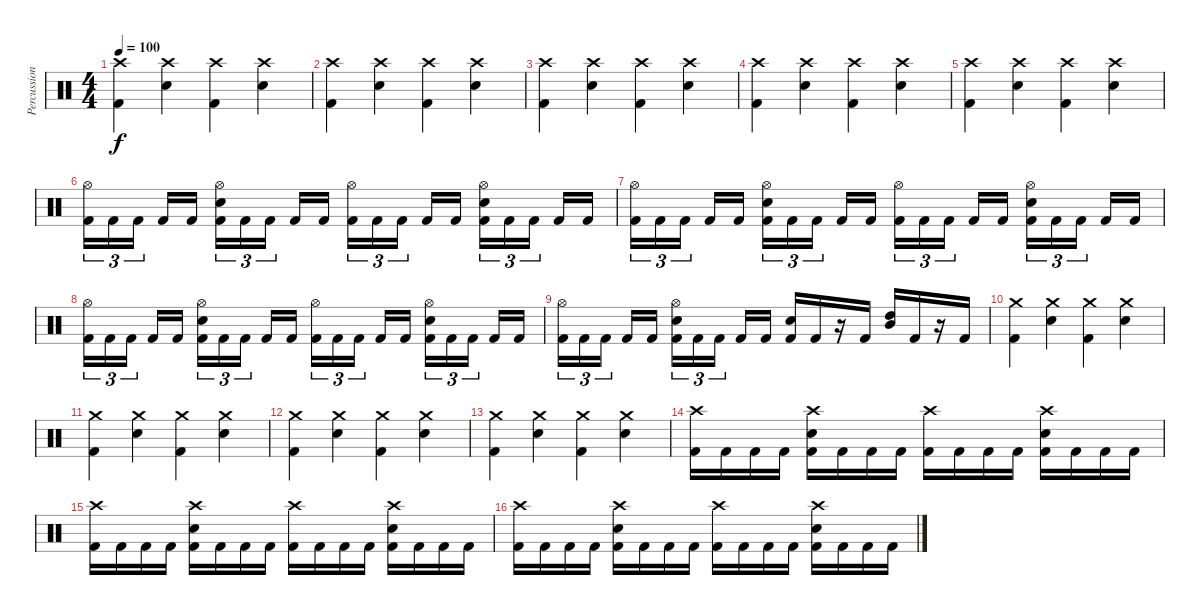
\track ("Percussion" "Percussion") {instrument percussion}
\staff {score}
\articulation defaults
\ts (4 4)
\tempo 100
\clef neutral
\ks c
("Crash high (hit)" "Kick (hit) 2").4{dy f} ("Crash high (hit)" "Electric Snare (hit)").4 ("Crash high (hit)" "Kick (hit) 2").4 ("Crash high (hit)" "Electric Snare (hit)").4 |
("Crash high (hit)" "Kick (hit) 2").4 ("Crash high (hit)" "Electric Snare (hit)").4 ("Crash high (hit)" "Kick (hit) 2").4 ("Crash high (hit)" "Electric Snare (hit)").4 |
("Crash high (hit)" "Kick (hit) 2").4 ("Crash high (hit)" "Electric Snare (hit)").4 ("Crash high (hit)" "Kick (hit) 2").4 ("Crash high (hit)" "Electric Snare (hit)").4 |
("Crash high (hit)" "Kick (hit) 2").4 ("Crash high (hit)" "Electric Snare (hit)").4 ("Crash high (hit)" "Kick (hit) 2").4 ("Crash high (hit)" "Electric Snare (hit)").4 |
("Crash high (hit)" "Kick (hit) 2").4 ("Crash high (hit)" "Electric Snare (hit)").4 ("Crash high (hit)" "Kick (hit) 2").4 ("Crash high (hit)" "Electric Snare (hit)").4 |
("Kick (hit) 2" "Hi-Hat (open)").16{tu (3 2)} "Kick (hit) 2".16{tu (3 2)} "Kick (hit) 2".16{tu (3 2) beam splitsecondary} "Kick (hit) 2".16 "Kick (hit) 2".16 ("Kick (hit) 2" "Hi-Hat (open)" "Electric Snare (hit)").16{tu (3 2)} "Kick (hit) 2".16{tu (3 2)} "Kick (hit) 2".16{tu (3 2) beam splitsecondary} "Kick (hit) 2".16 "Kick (hit) 2".16 ("Kick (hit) 2" "Hi-Hat (open)").16{tu (3 2)} "Kick (hit) 2".16{tu (3 2)} "Kick (hit) 2".16{tu (3 2) beam splitsecondary} "Kick (hit) 2".16 "Kick (hit) 2".16 ("Kick (hit) 2" "Hi-Hat (open)" "Electric Snare (hit)").16{tu (3 2)} "Kick (hit) 2".16{tu (3 2)} "Kick (hit) 2".16{tu (3 2) beam splitsecondary} "Kick (hit) 2".16 "Kick (hit) 2".16 |
("Kick (hit) 2" "Hi-Hat (open)").16{tu (3 2)} "Kick (hit) 2".16{tu (3 2)} "Kick (hit) 2".16{tu (3 2) beam splitsecondary} "Kick (hit) 2".16 "Kick (hit) 2".16 ("Kick (hit) 2" "Hi-Hat (open)" "Electric Snare (hit)").16{tu (3 2)} "Kick (hit) 2".16{tu (3 2)} "Kick (hit) 2".16{tu (3 2) beam splitsecondary} "Kick (hit) 2".16 "Kick (hit) 2".16 ("Kick (hit) 2" "Hi-Hat (open)").16{tu (3 2)} "Kick (hit) 2".16{tu (3 2)} "Kick (hit) 2".16{tu (3 2) beam splitsecondary} "Kick (hit) 2".16 "Kick (hit) 2".16 ("Kick (hit) 2" "Hi-Hat (open)" "Electric Snare (hit)").16{tu (3 2)} "Kick (hit) 2".16{tu (3 2)} "Kick (hit) 2".16{tu (3 2) beam splitsecondary} "Kick (hit) 2".16 "Kick (hit) 2".16 |
("Kick (hit) 2" "Hi-Hat (open)").16{tu (3 2)} "Kick (hit) 2".16{tu (3 2)} "Kick (hit) 2".16{tu (3 2) beam splitsecondary} "Kick (hit) 2".16 "Kick (hit) 2".16 ("Kick (hit) 2" "Hi-Hat (open)" "Electric Snare (hit)").16{tu (3 2)} "Kick (hit) 2".16{tu (3 2)} "Kick (hit) 2".16{tu (3 2) beam splitsecondary} "Kick (hit) 2".16 "Kick (hit) 2".16 ("Kick (hit) 2" "Hi-Hat (open)").16{tu (3 2)} "Kick (hit) 2".16{tu (3 2)} "Kick (hit) 2".16{tu (3 2) beam splitsecondary} "Kick (hit) 2".16 "Kick (hit) 2".16 ("Kick (hit) 2" "Hi-Hat (open)" "Electric Snare (hit)").16{tu (3 2)} "Kick (hit) 2".16{tu (3 2)} "Kick (hit) 2".16{tu (3 2) beam splitsecondary} "Kick (hit) 2".16 "Kick (hit) 2".16 |
("Kick (hit) 2" "Hi-Hat (open)").16{tu (3 2)} "Kick (hit) 2".16{tu (3 2)} "Kick (hit) 2".16{tu (3 2) beam splitsecondary} "Kick (hit) 2".16 "Kick (hit) 2".16 ("Kick (hit) 2" "Hi-Hat (open)" "Electric Snare (hit)").16{tu (3 2)} "Kick (hit) 2".16{tu (3 2)} "Kick (hit) 2".16{tu (3 2) beam splitsecondary} "Kick (hit) 2".16 "Kick (hit) 2".16 ("Electric Snare (hit)" "Kick (hit) 2").16 "Kick (hit) 2".16 r.16 "Kick (hit) 2".16 ("High Tom (hit)" "Mid Tom (hit)").16 "Kick (hit) 2".16 r.16 "Kick (hit) 2".16 |
("Crash medium (hit)" "Kick (hit) 2").4 ("Crash medium (hit)" "Electric Snare (hit)").4 ("Crash medium (hit)" "Kick (hit) 2").4 ("Crash medium (hit)" "Electric Snare (hit)").4 |
("Crash medium (hit)" "Kick (hit) 2").4 ("Crash medium (hit)" "Electric Snare (hit)").4 ("Crash medium (hit)" "Kick (hit) 2").4 ("Crash medium (hit)" "Electric Snare (hit)").4 |
("Crash medium (hit)" "Kick (hit) 2").4 ("Crash medium (hit)" "Electric Snare (hit)").4 ("Crash medium (hit)" "Kick (hit) 2").4 ("Crash medium (hit)" "Electric Snare (hit)").4 |
("Crash medium (hit)" "Kick (hit) 2").4 ("Crash medium (hit)" "Electric Snare (hit)").4 ("Crash medium (hit)" "Kick (hit) 2").4 ("Crash medium (hit)" "Electric Snare (hit)").4 |
("Kick (hit) 2" "Crash high (hit)").16 "Kick (hit) 2".16 "Kick (hit) 2".16 "Kick (hit) 2".16 ("Kick (hit) 2" "Crash high (hit)" "Electric Snare (hit)").16 "Kick (hit) 2".16 "Kick (hit) 2".16 "Kick (hit) 2".16 ("Kick (hit) 2" "Crash high (hit)").16 "Kick (hit) 2".16 "Kick (hit) 2".16 "Kick (hit) 2".16 ("Kick (hit) 2" "Crash high (hit)" "Electric Snare (hit)").16 "Kick (hit) 2".16 "Kick (hit) 2".16 "Kick (hit) 2".16 |
("Kick (hit) 2" "Crash high (hit)").16 "Kick (hit) 2".16 "Kick (hit) 2".16 "Kick (hit) 2".16 ("Kick (hit) 2" "Crash high (hit)" "Electric Snare (hit)").16 "Kick (hit) 2".16 "Kick (hit) 2".16 "Kick (hit) 2".16 ("Kick (hit) 2" "Crash high (hit)").16 "Kick (hit) 2".16 "Kick (hit) 2".16 "Kick (hit) 2".16 ("Kick (hit) 2" "Crash high (hit)" "Electric Snare (hit)").16 "Kick (hit) 2".16 "Kick (hit) 2".16 "Kick (hit) 2".16 |
("Kick (hit) 2" "Crash high (hit)").16 "Kick (hit) 2".16 "Kick (hit) 2".16 "Kick (hit) 2".16 ("Kick (hit) 2" "Crash high (hit)" "Electric Snare (hit)").16 "Kick (hit) 2".16 "Kick (hit) 2".16 "Kick (hit) 2".16 ("Kick (hit) 2" "Crash high (hit)").16 "Kick (hit) 2".16 "Kick (hit) 2".16 "Kick (hit) 2".16 ("Kick (hit) 2" "Crash high (hit)" "Electric Snare (hit)").16 "Kick (hit) 2".16 "Kick (hit) 2".16 "Kick (hit) 2".16
